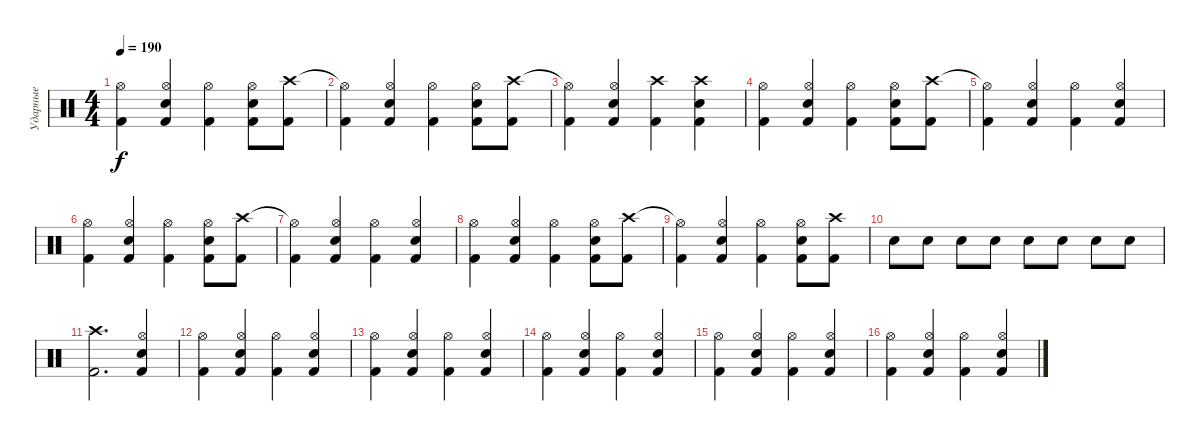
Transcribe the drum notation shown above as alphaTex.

\track ("Ударные" "Ударные") {instrument percussion}
\staff
\articulation defaults
\ts (4 4)
\tempo 190
\clef neutral
\ks c
("Kick (hit) 2" "Hi-Hat (open)"{t}).4{dy f} ("Kick (hit) 2" "Snare (hit) 2" "Hi-Hat (open)").4 ("Kick (hit) 2" "Hi-Hat (open)").4 ("Kick (hit) 2" "Snare (hit) 2" "Hi-Hat (open)").8 ("Kick (hit) 2" "Crash high (hit)").8 |
("Kick (hit) 2" "Hi-Hat (open)"{t}).4 ("Kick (hit) 2" "Snare (hit) 2" "Hi-Hat (open)").4 ("Kick (hit) 2" "Hi-Hat (open)").4 ("Kick (hit) 2" "Snare (hit) 2" "Hi-Hat (open)").8 ("Kick (hit) 2" "Crash high (hit)").8 |
("Kick (hit) 2" "Hi-Hat (open)"{t}).4 ("Kick (hit) 2" "Snare (hit) 2" "Hi-Hat (open)").4 ("Kick (hit) 2" "Crash high (hit)").4 ("Kick (hit) 2" "Snare (hit) 2" "Crash high (hit)").4 |
("Kick (hit) 2" "Hi-Hat (open)").4 ("Kick (hit) 2" "Snare (hit) 2" "Hi-Hat (open)").4 ("Kick (hit) 2" "Hi-Hat (open)").4 ("Kick (hit) 2" "Snare (hit) 2" "Hi-Hat (open)").8 ("Kick (hit) 2" "Crash high (hit)").8 |
("Kick (hit) 2" "Hi-Hat (open)"{t}).4 ("Kick (hit) 2" "Snare (hit) 2" "Hi-Hat (open)").4 ("Kick (hit) 2" "Hi-Hat (open)").4 ("Kick (hit) 2" "Snare (hit) 2" "Hi-Hat (open)").4 |
("Kick (hit) 2" "Hi-Hat (open)").4 ("Kick (hit) 2" "Snare (hit) 2" "Hi-Hat (open)").4 ("Kick (hit) 2" "Hi-Hat (open)").4 ("Kick (hit) 2" "Snare (hit) 2" "Hi-Hat (open)").8 ("Kick (hit) 2" "Crash high (hit)").8 |
("Kick (hit) 2" "Hi-Hat (open)"{t}).4 ("Kick (hit) 2" "Snare (hit) 2" "Hi-Hat (open)").4 ("Kick (hit) 2" "Hi-Hat (open)").4 ("Kick (hit) 2" "Snare (hit) 2" "Hi-Hat (open)").4 |
("Kick (hit) 2" "Hi-Hat (open)").4 ("Kick (hit) 2" "Snare (hit) 2" "Hi-Hat (open)").4 ("Kick (hit) 2" "Hi-Hat (open)").4 ("Kick (hit) 2" "Snare (hit) 2" "Hi-Hat (open)").8 ("Kick (hit) 2" "Crash high (hit)").8 |
("Kick (hit) 2" "Hi-Hat (open)"{t}).4 ("Kick (hit) 2" "Snare (hit) 2" "Hi-Hat (open)").4 ("Kick (hit) 2" "Hi-Hat (open)").4 ("Kick (hit) 2" "Snare (hit) 2" "Hi-Hat (open)").8 ("Kick (hit) 2" "Crash high (hit)").8 |
"Snare (hit) 2".8 "Snare (hit) 2".8 "Snare (hit) 2".8 "Snare (hit) 2".8 "Snare (hit) 2".8 "Snare (hit) 2".8 "Snare (hit) 2".8 "Snare (hit) 2".8 |
("Kick (hit) 2" "Crash high (hit)").2{d} ("Kick (hit) 2" "Snare (hit) 2" "Hi-Hat (open)").4 |
("Kick (hit) 2" "Hi-Hat (open)").4 ("Kick (hit) 2" "Snare (hit) 2" "Hi-Hat (open)").4 ("Kick (hit) 2" "Hi-Hat (open)").4 ("Kick (hit) 2" "Snare (hit) 2" "Hi-Hat (open)").4 |
("Kick (hit) 2" "Hi-Hat (open)").4 ("Kick (hit) 2" "Snare (hit) 2" "Hi-Hat (open)").4 ("Kick (hit) 2" "Hi-Hat (open)").4 ("Kick (hit) 2" "Snare (hit) 2" "Hi-Hat (open)").4 |
("Kick (hit) 2" "Hi-Hat (open)").4 ("Kick (hit) 2" "Snare (hit) 2" "Hi-Hat (open)").4 ("Kick (hit) 2" "Hi-Hat (open)").4 ("Kick (hit) 2" "Snare (hit) 2" "Hi-Hat (open)").4 |
("Kick (hit) 2" "Hi-Hat (open)").4 ("Kick (hit) 2" "Snare (hit) 2" "Hi-Hat (open)").4 ("Kick (hit) 2" "Hi-Hat (open)").4 ("Kick (hit) 2" "Snare (hit) 2" "Hi-Hat (open)").4 |
("Kick (hit) 2" "Hi-Hat (open)").4 ("Kick (hit) 2" "Snare (hit) 2" "Hi-Hat (open)").4 ("Kick (hit) 2" "Hi-Hat (open)").4 ("Kick (hit) 2" "Snare (hit) 2" "Hi-Hat (open)").4
